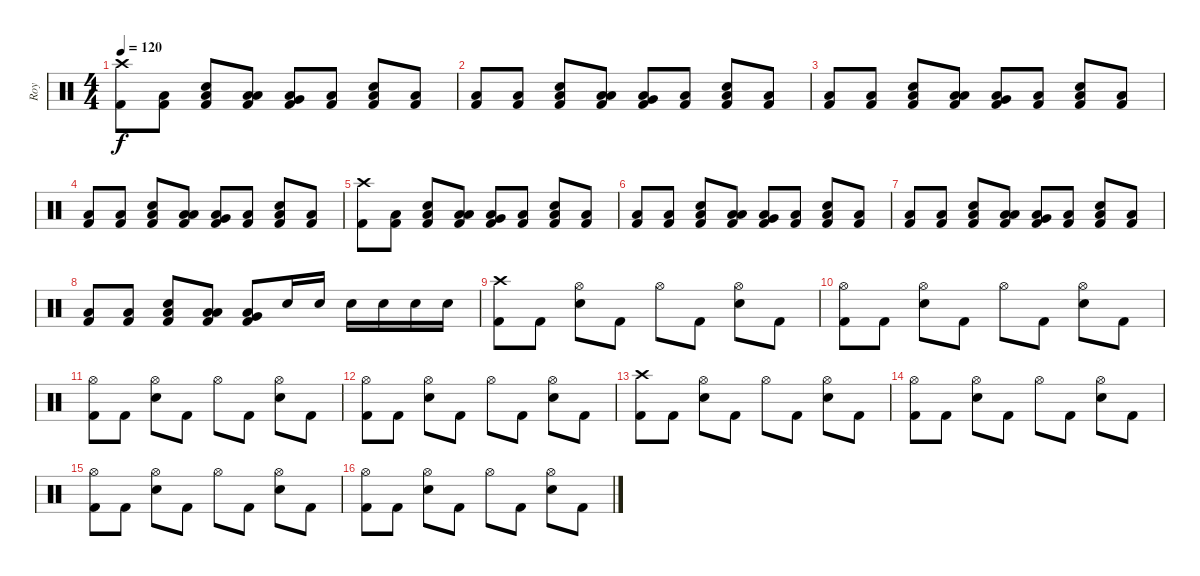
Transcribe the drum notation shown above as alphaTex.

\track ("Roy" "Roy") {instrument percussion}
\staff {score}
\articulation defaults
\ts (4 4)
\tempo 120
\clef neutral
\ks c
("Crash high (hit)" "Kick (hit) 2").8{dy f} ("Low Floor Tom (hit)" "Kick (hit) 2").8 ("Electric Snare (hit)" "Low Floor Tom (hit)" "Kick (hit) 2").8 ("Low Tom (hit)" "Low Floor Tom (hit)" "Kick (hit) 2").8 ("Very Low Tom (hit)" "Low Floor Tom (hit)" "Kick (hit) 2").8 ("Low Floor Tom (hit)" "Kick (hit) 2").8 ("Electric Snare (hit)" "Low Floor Tom (hit)" "Kick (hit) 2").8 ("Low Floor Tom (hit)" "Kick (hit) 2").8 |
("Low Floor Tom (hit)" "Kick (hit) 2").8 ("Low Floor Tom (hit)" "Kick (hit) 2").8 ("Electric Snare (hit)" "Low Floor Tom (hit)" "Kick (hit) 2").8 ("Low Tom (hit)" "Low Floor Tom (hit)" "Kick (hit) 2").8 ("Very Low Tom (hit)" "Low Floor Tom (hit)" "Kick (hit) 2").8 ("Low Floor Tom (hit)" "Kick (hit) 2").8 ("Electric Snare (hit)" "Low Floor Tom (hit)" "Kick (hit) 2").8 ("Low Floor Tom (hit)" "Kick (hit) 2").8 |
("Low Floor Tom (hit)" "Kick (hit) 2").8 ("Low Floor Tom (hit)" "Kick (hit) 2").8 ("Electric Snare (hit)" "Low Floor Tom (hit)" "Kick (hit) 2").8 ("Low Tom (hit)" "Low Floor Tom (hit)" "Kick (hit) 2").8 ("Very Low Tom (hit)" "Low Floor Tom (hit)" "Kick (hit) 2").8 ("Low Floor Tom (hit)" "Kick (hit) 2").8 ("Electric Snare (hit)" "Low Floor Tom (hit)" "Kick (hit) 2").8 ("Low Floor Tom (hit)" "Kick (hit) 2").8 |
("Low Floor Tom (hit)" "Kick (hit) 2").8 ("Low Floor Tom (hit)" "Kick (hit) 2").8 ("Electric Snare (hit)" "Low Floor Tom (hit)" "Kick (hit) 2").8 ("Low Tom (hit)" "Low Floor Tom (hit)" "Kick (hit) 2").8 ("Very Low Tom (hit)" "Low Floor Tom (hit)" "Kick (hit) 2").8 ("Low Floor Tom (hit)" "Kick (hit) 2").8 ("Electric Snare (hit)" "Low Floor Tom (hit)" "Kick (hit) 2").8 ("Low Floor Tom (hit)" "Kick (hit) 2").8 |
("Crash high (hit)" "Kick (hit) 2").8 ("Low Floor Tom (hit)" "Kick (hit) 2").8 ("Electric Snare (hit)" "Low Floor Tom (hit)" "Kick (hit) 2").8 ("Low Tom (hit)" "Low Floor Tom (hit)" "Kick (hit) 2").8 ("Very Low Tom (hit)" "Low Floor Tom (hit)" "Kick (hit) 2").8 ("Low Floor Tom (hit)" "Kick (hit) 2").8 ("Electric Snare (hit)" "Low Floor Tom (hit)" "Kick (hit) 2").8 ("Low Floor Tom (hit)" "Kick (hit) 2").8 |
("Low Floor Tom (hit)" "Kick (hit) 2").8 ("Low Floor Tom (hit)" "Kick (hit) 2").8 ("Electric Snare (hit)" "Low Floor Tom (hit)" "Kick (hit) 2").8 ("Low Tom (hit)" "Low Floor Tom (hit)" "Kick (hit) 2").8 ("Very Low Tom (hit)" "Low Floor Tom (hit)" "Kick (hit) 2").8 ("Low Floor Tom (hit)" "Kick (hit) 2").8 ("Electric Snare (hit)" "Low Floor Tom (hit)" "Kick (hit) 2").8 ("Low Floor Tom (hit)" "Kick (hit) 2").8 |
("Low Floor Tom (hit)" "Kick (hit) 2").8 ("Low Floor Tom (hit)" "Kick (hit) 2").8 ("Electric Snare (hit)" "Low Floor Tom (hit)" "Kick (hit) 2").8 ("Low Tom (hit)" "Low Floor Tom (hit)" "Kick (hit) 2").8 ("Very Low Tom (hit)" "Low Floor Tom (hit)" "Kick (hit) 2").8 ("Low Floor Tom (hit)" "Kick (hit) 2").8 ("Electric Snare (hit)" "Low Floor Tom (hit)" "Kick (hit) 2").8 ("Low Floor Tom (hit)" "Kick (hit) 2").8 |
("Low Floor Tom (hit)" "Kick (hit) 2").8 ("Low Floor Tom (hit)" "Kick (hit) 2").8 ("Electric Snare (hit)" "Low Floor Tom (hit)" "Kick (hit) 2").8 ("Low Tom (hit)" "Low Floor Tom (hit)" "Kick (hit) 2").8 ("Very Low Tom (hit)" "Low Floor Tom (hit)" "Kick (hit) 2").8 "Electric Snare (hit)".16 "Electric Snare (hit)".16 "Electric Snare (hit)".16 "Electric Snare (hit)".16 "Electric Snare (hit)".16 "Electric Snare (hit)".16 |
("Crash high (hit)" "Kick (hit) 2").8 "Kick (hit) 2".8 ("Hi-Hat (open)" "Electric Snare (hit)").8 "Kick (hit) 2".8 "Hi-Hat (open)".8 "Kick (hit) 2".8 ("Hi-Hat (open)" "Electric Snare (hit)").8 "Kick (hit) 2".8 |
("Hi-Hat (open)" "Kick (hit) 2").8 "Kick (hit) 2".8 ("Hi-Hat (open)" "Electric Snare (hit)").8 "Kick (hit) 2".8 "Hi-Hat (open)".8 "Kick (hit) 2".8 ("Hi-Hat (open)" "Electric Snare (hit)").8 "Kick (hit) 2".8 |
("Hi-Hat (open)" "Kick (hit) 2").8 "Kick (hit) 2".8 ("Hi-Hat (open)" "Electric Snare (hit)").8 "Kick (hit) 2".8 "Hi-Hat (open)".8 "Kick (hit) 2".8 ("Hi-Hat (open)" "Electric Snare (hit)").8 "Kick (hit) 2".8 |
("Hi-Hat (open)" "Kick (hit) 2").8 "Kick (hit) 2".8 ("Hi-Hat (open)" "Electric Snare (hit)").8 "Kick (hit) 2".8 "Hi-Hat (open)".8 "Kick (hit) 2".8 ("Hi-Hat (open)" "Electric Snare (hit)").8 "Kick (hit) 2".8 |
("Crash high (hit)" "Kick (hit) 2").8 "Kick (hit) 2".8 ("Hi-Hat (open)" "Electric Snare (hit)").8 "Kick (hit) 2".8 "Hi-Hat (open)".8 "Kick (hit) 2".8 ("Hi-Hat (open)" "Electric Snare (hit)").8 "Kick (hit) 2".8 |
("Hi-Hat (open)" "Kick (hit) 2").8 "Kick (hit) 2".8 ("Hi-Hat (open)" "Electric Snare (hit)").8 "Kick (hit) 2".8 "Hi-Hat (open)".8 "Kick (hit) 2".8 ("Hi-Hat (open)" "Electric Snare (hit)").8 "Kick (hit) 2".8 |
("Hi-Hat (open)" "Kick (hit) 2").8 "Kick (hit) 2".8 ("Hi-Hat (open)" "Electric Snare (hit)").8 "Kick (hit) 2".8 "Hi-Hat (open)".8 "Kick (hit) 2".8 ("Hi-Hat (open)" "Electric Snare (hit)").8 "Kick (hit) 2".8 |
("Hi-Hat (open)" "Kick (hit) 2").8 "Kick (hit) 2".8 ("Hi-Hat (open)" "Electric Snare (hit)").8 "Kick (hit) 2".8 "Hi-Hat (open)".8 "Kick (hit) 2".8 ("Hi-Hat (open)" "Electric Snare (hit)").8 "Kick (hit) 2".8
